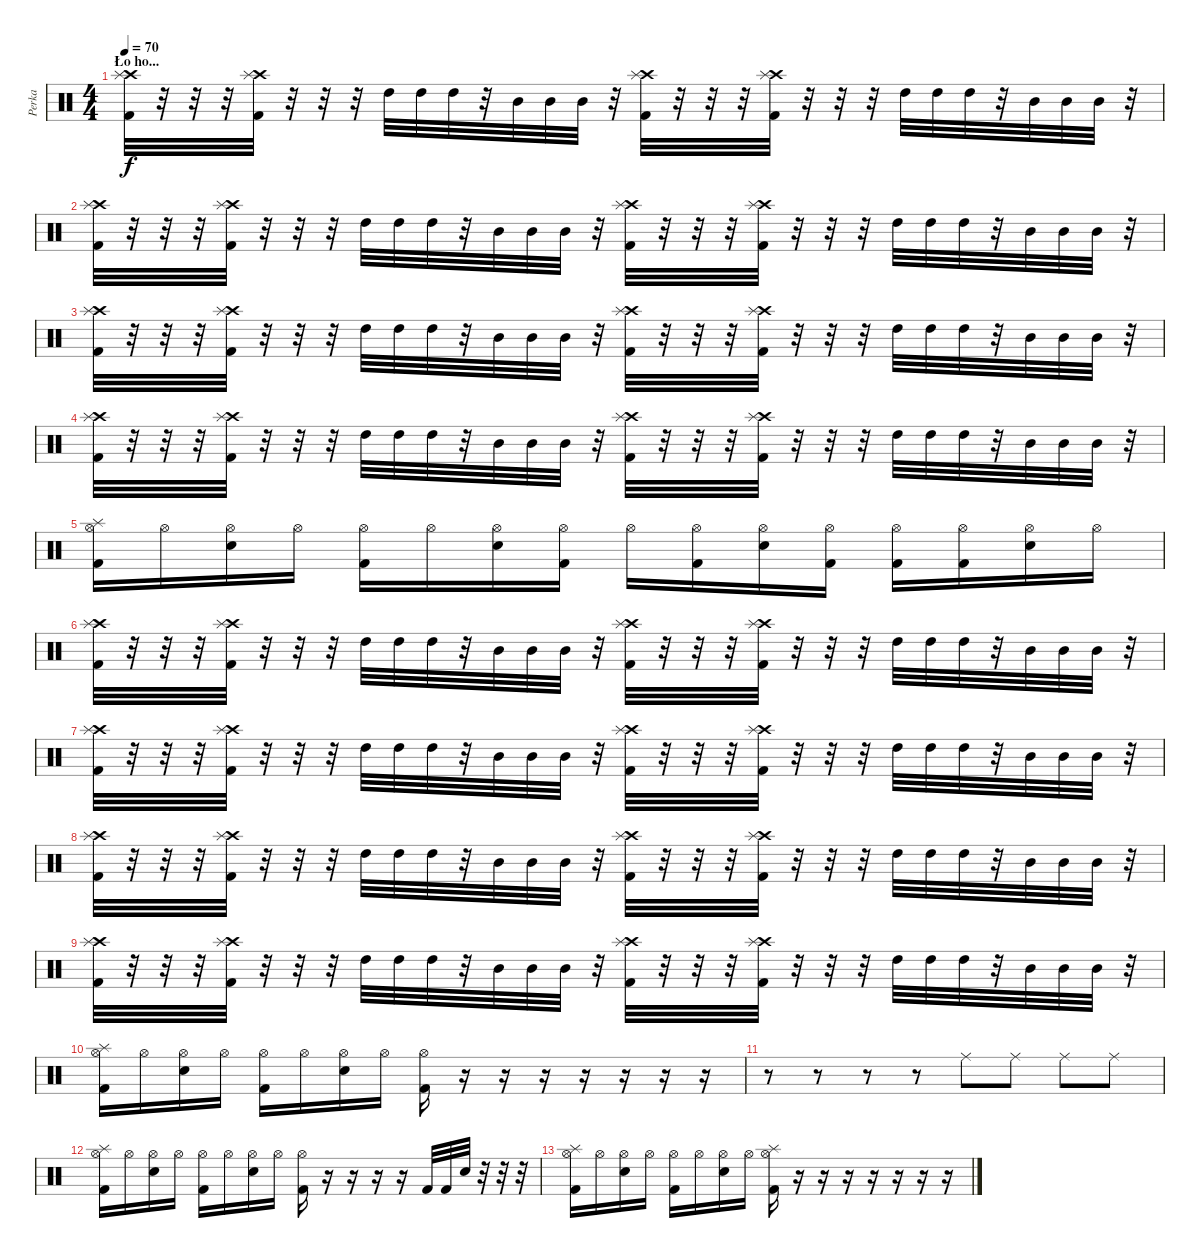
\track ("Perka" "Perka") {instrument percussion}
\staff {score}
\articulation defaults
\ts (4 4)
\section ("" "Ło ho...")
\tempo 70
\clef neutral
\ks c
("Crash high (hit)" "Splash (hit)" "Kick (hit) 2").32{dy f} r.32 r.32 r.32 ("Crash high (hit)" "Splash (hit)" "Kick (hit) 2").32 r.32 r.32 r.32 "High Tom (hit)".32 "High Tom (hit)".32 "High Tom (hit)".32 r.32 "Mid Tom (hit)".32 "Mid Tom (hit)".32 "Mid Tom (hit)".32 r.32 ("Crash high (hit)" "Splash (hit)" "Kick (hit) 2").32 r.32 r.32 r.32 ("Crash high (hit)" "Splash (hit)" "Kick (hit) 2").32 r.32 r.32 r.32 "High Tom (hit)".32 "High Tom (hit)".32 "High Tom (hit)".32 r.32 "Mid Tom (hit)".32 "Mid Tom (hit)".32 "Mid Tom (hit)".32 r.32 |
("Crash high (hit)" "Splash (hit)" "Kick (hit) 2").32 r.32 r.32 r.32 ("Crash high (hit)" "Splash (hit)" "Kick (hit) 2").32 r.32 r.32 r.32 "High Tom (hit)".32 "High Tom (hit)".32 "High Tom (hit)".32 r.32 "Mid Tom (hit)".32 "Mid Tom (hit)".32 "Mid Tom (hit)".32 r.32 ("Crash high (hit)" "Splash (hit)" "Kick (hit) 2").32 r.32 r.32 r.32 ("Crash high (hit)" "Splash (hit)" "Kick (hit) 2").32 r.32 r.32 r.32 "High Tom (hit)".32 "High Tom (hit)".32 "High Tom (hit)".32 r.32 "Mid Tom (hit)".32 "Mid Tom (hit)".32 "Mid Tom (hit)".32 r.32 |
("Crash high (hit)" "Splash (hit)" "Kick (hit) 2").32 r.32 r.32 r.32 ("Crash high (hit)" "Splash (hit)" "Kick (hit) 2").32 r.32 r.32 r.32 "High Tom (hit)".32 "High Tom (hit)".32 "High Tom (hit)".32 r.32 "Mid Tom (hit)".32 "Mid Tom (hit)".32 "Mid Tom (hit)".32 r.32 ("Crash high (hit)" "Splash (hit)" "Kick (hit) 2").32 r.32 r.32 r.32 ("Crash high (hit)" "Splash (hit)" "Kick (hit) 2").32 r.32 r.32 r.32 "High Tom (hit)".32 "High Tom (hit)".32 "High Tom (hit)".32 r.32 "Mid Tom (hit)".32 "Mid Tom (hit)".32 "Mid Tom (hit)".32 r.32 |
("Crash high (hit)" "Splash (hit)" "Kick (hit) 2").32 r.32 r.32 r.32 ("Crash high (hit)" "Splash (hit)" "Kick (hit) 2").32 r.32 r.32 r.32 "High Tom (hit)".32 "High Tom (hit)".32 "High Tom (hit)".32 r.32 "Mid Tom (hit)".32 "Mid Tom (hit)".32 "Mid Tom (hit)".32 r.32 ("Crash high (hit)" "Splash (hit)" "Kick (hit) 2").32 r.32 r.32 r.32 ("Crash high (hit)" "Splash (hit)" "Kick (hit) 2").32 r.32 r.32 r.32 "High Tom (hit)".32 "High Tom (hit)".32 "High Tom (hit)".32 r.32 "Mid Tom (hit)".32 "Mid Tom (hit)".32 "Mid Tom (hit)".32 r.32 |
("Splash (hit)" "Hi-Hat (open)" "Kick (hit) 2").16 "Hi-Hat (open)".16 ("Hi-Hat (open)" "Electric Snare (hit)").16 "Hi-Hat (open)".16 ("Hi-Hat (open)" "Kick (hit) 2").16 "Hi-Hat (open)".16 ("Hi-Hat (open)" "Electric Snare (hit)").16 ("Hi-Hat (open)" "Kick (hit) 2").16 "Hi-Hat (open)".16 ("Hi-Hat (open)" "Kick (hit) 2").16 ("Hi-Hat (open)" "Electric Snare (hit)").16 ("Hi-Hat (open)" "Kick (hit) 2").16 ("Hi-Hat (open)" "Kick (hit) 2").16 ("Hi-Hat (open)" "Kick (hit) 2").16 ("Hi-Hat (open)" "Electric Snare (hit)").16 "Hi-Hat (open)".16 |
("Crash high (hit)" "Splash (hit)" "Kick (hit) 2").32 r.32 r.32 r.32 ("Crash high (hit)" "Splash (hit)" "Kick (hit) 2").32 r.32 r.32 r.32 "High Tom (hit)".32 "High Tom (hit)".32 "High Tom (hit)".32 r.32 "Mid Tom (hit)".32 "Mid Tom (hit)".32 "Mid Tom (hit)".32 r.32 ("Crash high (hit)" "Splash (hit)" "Kick (hit) 2").32 r.32 r.32 r.32 ("Crash high (hit)" "Splash (hit)" "Kick (hit) 2").32 r.32 r.32 r.32 "High Tom (hit)".32 "High Tom (hit)".32 "High Tom (hit)".32 r.32 "Mid Tom (hit)".32 "Mid Tom (hit)".32 "Mid Tom (hit)".32 r.32 |
("Crash high (hit)" "Splash (hit)" "Kick (hit) 2").32 r.32 r.32 r.32 ("Crash high (hit)" "Splash (hit)" "Kick (hit) 2").32 r.32 r.32 r.32 "High Tom (hit)".32 "High Tom (hit)".32 "High Tom (hit)".32 r.32 "Mid Tom (hit)".32 "Mid Tom (hit)".32 "Mid Tom (hit)".32 r.32 ("Crash high (hit)" "Splash (hit)" "Kick (hit) 2").32 r.32 r.32 r.32 ("Crash high (hit)" "Splash (hit)" "Kick (hit) 2").32 r.32 r.32 r.32 "High Tom (hit)".32 "High Tom (hit)".32 "High Tom (hit)".32 r.32 "Mid Tom (hit)".32 "Mid Tom (hit)".32 "Mid Tom (hit)".32 r.32 |
("Crash high (hit)" "Splash (hit)" "Kick (hit) 2").32 r.32 r.32 r.32 ("Crash high (hit)" "Splash (hit)" "Kick (hit) 2").32 r.32 r.32 r.32 "High Tom (hit)".32 "High Tom (hit)".32 "High Tom (hit)".32 r.32 "Mid Tom (hit)".32 "Mid Tom (hit)".32 "Mid Tom (hit)".32 r.32 ("Crash high (hit)" "Splash (hit)" "Kick (hit) 2").32 r.32 r.32 r.32 ("Crash high (hit)" "Splash (hit)" "Kick (hit) 2").32 r.32 r.32 r.32 "High Tom (hit)".32 "High Tom (hit)".32 "High Tom (hit)".32 r.32 "Mid Tom (hit)".32 "Mid Tom (hit)".32 "Mid Tom (hit)".32 r.32 |
("Crash high (hit)" "Splash (hit)" "Kick (hit) 2").32 r.32 r.32 r.32 ("Crash high (hit)" "Splash (hit)" "Kick (hit) 2").32 r.32 r.32 r.32 "High Tom (hit)".32 "High Tom (hit)".32 "High Tom (hit)".32 r.32 "Mid Tom (hit)".32 "Mid Tom (hit)".32 "Mid Tom (hit)".32 r.32 ("Crash high (hit)" "Splash (hit)" "Kick (hit) 2").32 r.32 r.32 r.32 ("Crash high (hit)" "Splash (hit)" "Kick (hit) 2").32 r.32 r.32 r.32 "High Tom (hit)".32 "High Tom (hit)".32 "High Tom (hit)".32 r.32 "Mid Tom (hit)".32 "Mid Tom (hit)".32 "Mid Tom (hit)".32 r.32 |
("Splash (hit)" "Hi-Hat (open)" "Kick (hit) 2").16 "Hi-Hat (open)".16 ("Hi-Hat (open)" "Electric Snare (hit)").16 "Hi-Hat (open)".16 ("Hi-Hat (open)" "Kick (hit) 2").16 "Hi-Hat (open)".16 ("Hi-Hat (open)" "Electric Snare (hit)").16 "Hi-Hat (open)".16 ("Hi-Hat (open)" "Kick (hit) 2").16 r.16 r.16 r.16 r.16 r.16 r.16 r.16 |
r.8 r.8 r.8 r.8 "Ride (middle)".8 "Ride (middle)".8 "Ride (middle)".8 "Ride (middle)".8 |
("Splash (hit)" "Hi-Hat (open)" "Kick (hit) 2").16 "Hi-Hat (open)".16 ("Hi-Hat (open)" "Electric Snare (hit)").16 "Hi-Hat (open)".16 ("Hi-Hat (open)" "Kick (hit) 2").16 "Hi-Hat (open)".16 ("Hi-Hat (open)" "Electric Snare (hit)").16 "Hi-Hat (open)".16 ("Hi-Hat (open)" "Kick (hit) 2").16 r.16 r.16 r.16 r.16 "Kick (hit) 2".32 "Kick (hit) 2".32 "Electric Snare (hit)".32 r.32 r.32 r.32 |
("Splash (hit)" "Hi-Hat (open)" "Kick (hit) 2").16 "Hi-Hat (open)".16 ("Hi-Hat (open)" "Electric Snare (hit)").16 "Hi-Hat (open)".16 ("Hi-Hat (open)" "Kick (hit) 2").16 "Hi-Hat (open)".16 ("Hi-Hat (open)" "Electric Snare (hit)").16 "Hi-Hat (open)".16 ("Splash (hit)" "Hi-Hat (open)" "Kick (hit) 2").16 r.16 r.16 r.16 r.16 r.16 r.16 r.16
